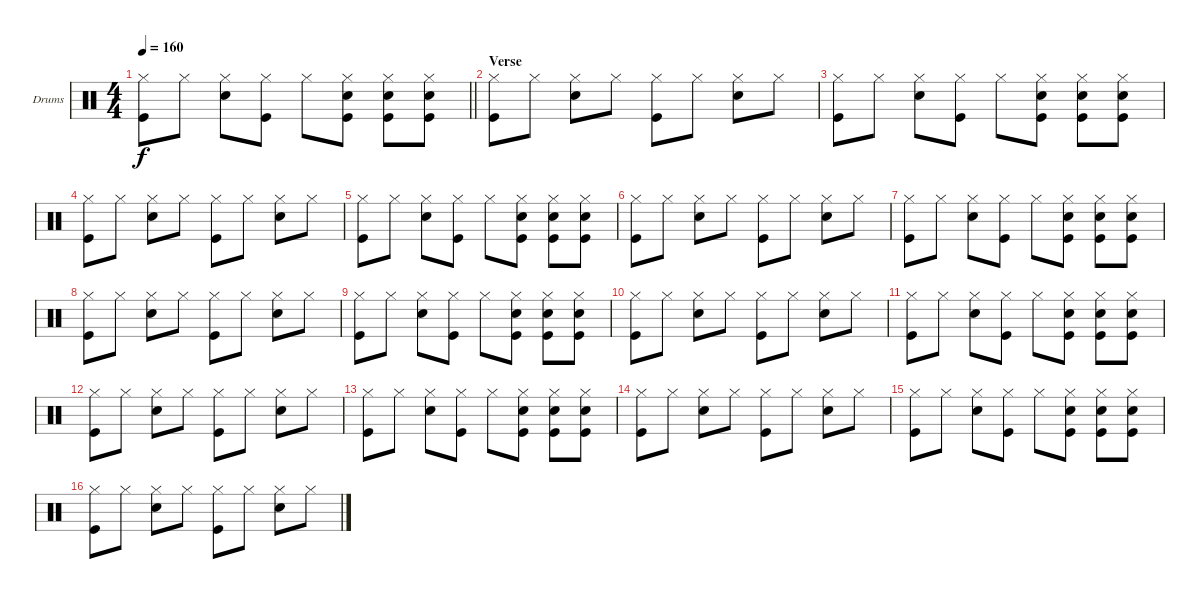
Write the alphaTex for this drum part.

\bracketExtendMode groupsimilarinstruments
\firstSystemTrackNameOrientation horizontal
\otherSystemsTrackNameOrientation horizontal
\track ("Fabrizio" "Drums") {instrument percussion}
\staff {score}
\articulation defaults
\ts (4 4)
\tempo 160
\clef neutral
\barLineRight lightlight
\ks c
("Hi-Hat (closed)" "Kick (hit)").8{dy f} "Hi-Hat (closed)".8 ("Hi-Hat (closed)" "Snare (hit) 2").8 ("Hi-Hat (closed)" "Kick (hit)").8 "Hi-Hat (closed)".8 ("Hi-Hat (closed)" "Snare (hit) 2" "Kick (hit)").8 ("Hi-Hat (closed)" "Snare (hit) 2" "Kick (hit)").8 ("Hi-Hat (closed)" "Snare (hit) 2" "Kick (hit)").8 |
\section ("" "Verse")
("Hi-Hat (closed)" "Kick (hit)").8 "Hi-Hat (closed)".8 ("Hi-Hat (closed)" "Snare (hit) 2").8 "Hi-Hat (closed)".8 ("Hi-Hat (closed)" "Kick (hit)").8 "Hi-Hat (closed)".8 ("Hi-Hat (closed)" "Snare (hit) 2").8 "Hi-Hat (closed)".8 |
("Hi-Hat (closed)" "Kick (hit)").8 "Hi-Hat (closed)".8 ("Hi-Hat (closed)" "Snare (hit) 2").8 ("Hi-Hat (closed)" "Kick (hit)").8 "Hi-Hat (closed)".8 ("Hi-Hat (closed)" "Snare (hit) 2" "Kick (hit)").8 ("Hi-Hat (closed)" "Snare (hit) 2" "Kick (hit)").8 ("Hi-Hat (closed)" "Snare (hit) 2" "Kick (hit)").8 |
("Hi-Hat (closed)" "Kick (hit)").8 "Hi-Hat (closed)".8 ("Hi-Hat (closed)" "Snare (hit) 2").8 "Hi-Hat (closed)".8 ("Hi-Hat (closed)" "Kick (hit)").8 "Hi-Hat (closed)".8 ("Hi-Hat (closed)" "Snare (hit) 2").8 "Hi-Hat (closed)".8 |
("Hi-Hat (closed)" "Kick (hit)").8 "Hi-Hat (closed)".8 ("Hi-Hat (closed)" "Snare (hit) 2").8 ("Hi-Hat (closed)" "Kick (hit)").8 "Hi-Hat (closed)".8 ("Hi-Hat (closed)" "Snare (hit) 2" "Kick (hit)").8 ("Hi-Hat (closed)" "Snare (hit) 2" "Kick (hit)").8 ("Hi-Hat (closed)" "Snare (hit) 2" "Kick (hit)").8 |
("Hi-Hat (closed)" "Kick (hit)").8 "Hi-Hat (closed)".8 ("Hi-Hat (closed)" "Snare (hit) 2").8 "Hi-Hat (closed)".8 ("Hi-Hat (closed)" "Kick (hit)").8 "Hi-Hat (closed)".8 ("Hi-Hat (closed)" "Snare (hit) 2").8 "Hi-Hat (closed)".8 |
("Hi-Hat (closed)" "Kick (hit)").8 "Hi-Hat (closed)".8 ("Hi-Hat (closed)" "Snare (hit) 2").8 ("Hi-Hat (closed)" "Kick (hit)").8 "Hi-Hat (closed)".8 ("Hi-Hat (closed)" "Snare (hit) 2" "Kick (hit)").8 ("Hi-Hat (closed)" "Snare (hit) 2" "Kick (hit)").8 ("Hi-Hat (closed)" "Snare (hit) 2" "Kick (hit)").8 |
("Hi-Hat (closed)" "Kick (hit)").8 "Hi-Hat (closed)".8 ("Hi-Hat (closed)" "Snare (hit) 2").8 "Hi-Hat (closed)".8 ("Hi-Hat (closed)" "Kick (hit)").8 "Hi-Hat (closed)".8 ("Hi-Hat (closed)" "Snare (hit) 2").8 "Hi-Hat (closed)".8 |
("Hi-Hat (closed)" "Kick (hit)").8 "Hi-Hat (closed)".8 ("Hi-Hat (closed)" "Snare (hit) 2").8 ("Hi-Hat (closed)" "Kick (hit)").8 "Hi-Hat (closed)".8 ("Hi-Hat (closed)" "Snare (hit) 2" "Kick (hit)").8 ("Hi-Hat (closed)" "Snare (hit) 2" "Kick (hit)").8 ("Hi-Hat (closed)" "Snare (hit) 2" "Kick (hit)").8 |
("Hi-Hat (closed)" "Kick (hit)").8 "Hi-Hat (closed)".8 ("Hi-Hat (closed)" "Snare (hit) 2").8 "Hi-Hat (closed)".8 ("Hi-Hat (closed)" "Kick (hit)").8 "Hi-Hat (closed)".8 ("Hi-Hat (closed)" "Snare (hit) 2").8 "Hi-Hat (closed)".8 |
("Hi-Hat (closed)" "Kick (hit)").8 "Hi-Hat (closed)".8 ("Hi-Hat (closed)" "Snare (hit) 2").8 ("Hi-Hat (closed)" "Kick (hit)").8 "Hi-Hat (closed)".8 ("Hi-Hat (closed)" "Snare (hit) 2" "Kick (hit)").8 ("Hi-Hat (closed)" "Snare (hit) 2" "Kick (hit)").8 ("Hi-Hat (closed)" "Snare (hit) 2" "Kick (hit)").8 |
("Hi-Hat (closed)" "Kick (hit)").8 "Hi-Hat (closed)".8 ("Hi-Hat (closed)" "Snare (hit) 2").8 "Hi-Hat (closed)".8 ("Hi-Hat (closed)" "Kick (hit)").8 "Hi-Hat (closed)".8 ("Hi-Hat (closed)" "Snare (hit) 2").8 "Hi-Hat (closed)".8 |
("Hi-Hat (closed)" "Kick (hit)").8 "Hi-Hat (closed)".8 ("Hi-Hat (closed)" "Snare (hit) 2").8 ("Hi-Hat (closed)" "Kick (hit)").8 "Hi-Hat (closed)".8 ("Hi-Hat (closed)" "Snare (hit) 2" "Kick (hit)").8 ("Hi-Hat (closed)" "Snare (hit) 2" "Kick (hit)").8 ("Hi-Hat (closed)" "Snare (hit) 2" "Kick (hit)").8 |
("Hi-Hat (closed)" "Kick (hit)").8 "Hi-Hat (closed)".8 ("Hi-Hat (closed)" "Snare (hit) 2").8 "Hi-Hat (closed)".8 ("Hi-Hat (closed)" "Kick (hit)").8 "Hi-Hat (closed)".8 ("Hi-Hat (closed)" "Snare (hit) 2").8 "Hi-Hat (closed)".8 |
("Hi-Hat (closed)" "Kick (hit)").8 "Hi-Hat (closed)".8 ("Hi-Hat (closed)" "Snare (hit) 2").8 ("Hi-Hat (closed)" "Kick (hit)").8 "Hi-Hat (closed)".8 ("Hi-Hat (closed)" "Snare (hit) 2" "Kick (hit)").8 ("Hi-Hat (closed)" "Snare (hit) 2" "Kick (hit)").8 ("Hi-Hat (closed)" "Snare (hit) 2" "Kick (hit)").8 |
("Hi-Hat (closed)" "Kick (hit)").8 "Hi-Hat (closed)".8 ("Hi-Hat (closed)" "Snare (hit) 2").8 "Hi-Hat (closed)".8 ("Hi-Hat (closed)" "Kick (hit)").8 "Hi-Hat (closed)".8 ("Hi-Hat (closed)" "Snare (hit) 2").8 "Hi-Hat (closed)".8
